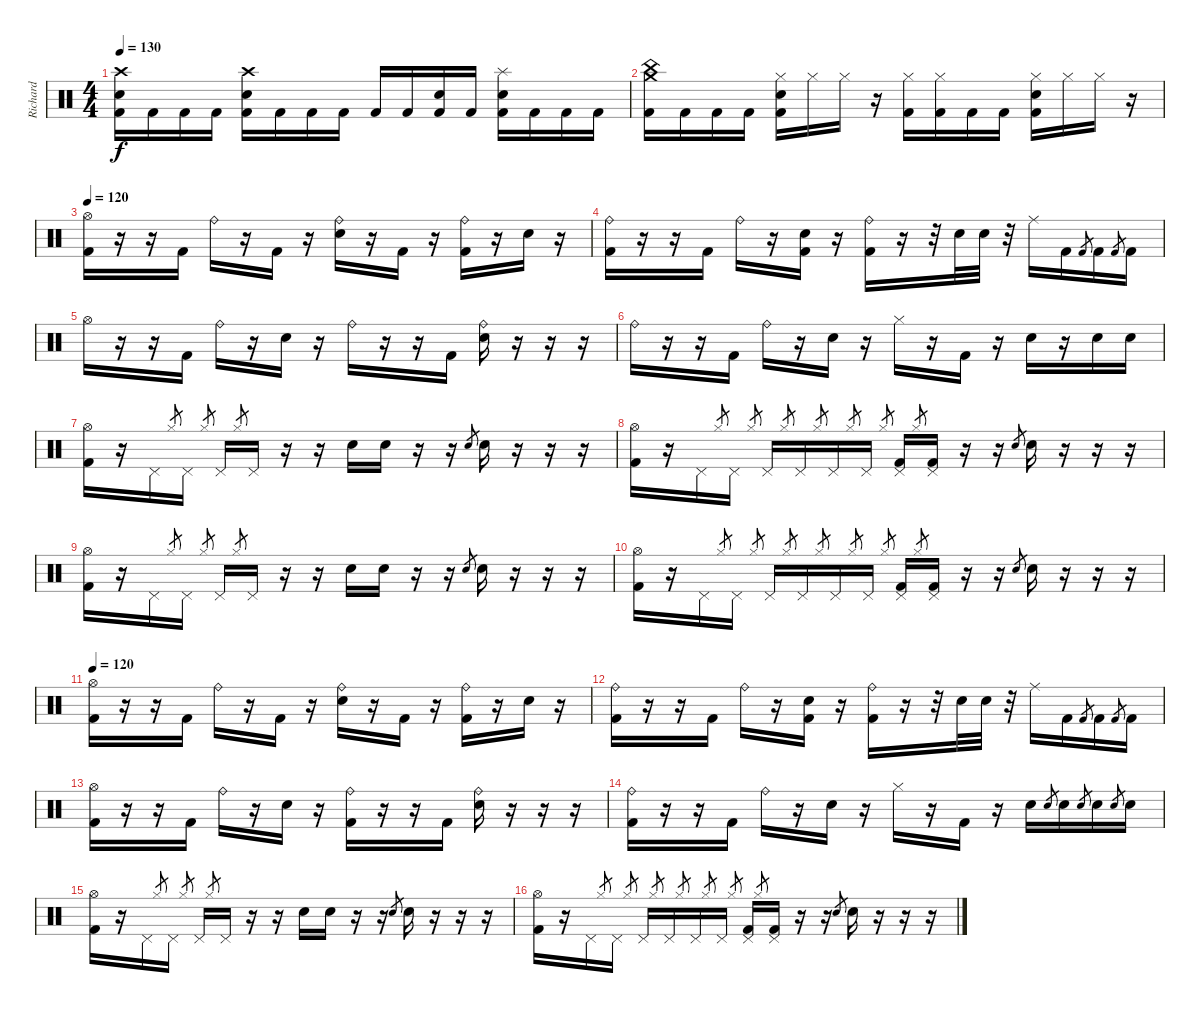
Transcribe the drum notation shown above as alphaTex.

\track ("Richard " "Richard ") {instrument percussion}
\staff {score}
\articulation defaults
\ts (4 4)
\tempo 130
\clef neutral
\ks c
("Crash high (hit)" "Snare (hit) 2" "Kick (hit) 2").16{dy f} "Kick (hit) 2".16 "Kick (hit) 2".16 "Kick (hit) 2".16 ("Crash high (hit)" "Snare (hit) 2" "Kick (hit) 2").16 "Kick (hit) 2".16 "Kick (hit) 2".16 "Kick (hit) 2".16 "Kick (hit) 2".16 "Kick (hit) 2".16 ("Snare (hit) 2" "Kick (hit) 2").16 "Kick (hit) 2".16 ("Splash (hit)" "Snare (hit) 2" "Kick (hit) 2").16 "Kick (hit) 2".16 "Kick (hit) 2".16 "Kick (hit) 2".16 |
("Crash medium (hit)" "China (hit)" "Kick (hit) 2").16 "Kick (hit) 2".16 "Kick (hit) 2".16 "Kick (hit) 2".16 ("Hi-Hat (closed)" "Snare (hit) 2" "Kick (hit) 2").16 "Hi-Hat (closed)".16 "Hi-Hat (closed)".16 r.16 ("Hi-Hat (closed)" "Kick (hit) 2").16 ("Hi-Hat (closed)" "Kick (hit) 2").16 "Kick (hit) 2".16 "Kick (hit) 2".16 ("Hi-Hat (closed)" "Snare (hit) 2" "Kick (hit) 2").16 "Hi-Hat (closed)".16 "Hi-Hat (closed)".16 r.16 |
\tempo 120
("Hi-Hat (open)" "Kick (hit) 2").16 r.16 r.16 "Kick (hit) 2".16 "Ride (bell)".16 r.16 "Kick (hit) 2".16 r.16 ("Ride (bell)" "Snare (hit) 2").16 r.16 "Kick (hit) 2".16 r.16 ("Ride (bell)" "Kick (hit) 2").16 r.16 "Snare (hit) 2".16 r.16 |
("Ride (bell)" "Kick (hit) 2").16 r.16 r.16 "Kick (hit) 2".16 "Ride (bell)".16 r.16 ("Snare (hit) 2" "Kick (hit) 2").16 r.16 ("Ride (bell)" "Kick (hit) 2").16 r.16 r.32 "Snare (hit) 2".32 "Snare (hit) 2".32 r.32 "Ride (middle)".16 "Kick (hit) 2".16 "Kick (hit) 2".8{gr} "Kick (hit) 2".16 "Kick (hit) 2".8{gr} "Kick (hit) 2".16 |
"Hi-Hat (open)".16 r.16 r.16 "Kick (hit) 2".16 "Ride (bell)".16 r.16 "Snare (hit) 2".16 r.16 "Ride (bell)".16 r.16 r.16 "Kick (hit) 2".16 ("Ride (bell)" "Snare (hit) 2").16 r.16 r.16 r.16 |
"Ride (bell)".16 r.16 r.16 "Kick (hit) 2".16 "Ride (bell)".16 r.16 "Snare (hit) 2".16 r.16 "Hi-Hat (closed)".16 r.16 "Kick (hit) 2".16 r.16 "Snare (hit) 2".16 r.16 "Snare (hit) 2".16 "Snare (hit) 2".16 |
("Hi-Hat (open)" "Kick (hit) 2").16 r.16 "Pedal Hi-Hat (hit)".16 "Hi-Hat (closed)".8{gr} "Pedal Hi-Hat (hit)".16 "Hi-Hat (closed)".8{gr} "Pedal Hi-Hat (hit)".16 "Hi-Hat (closed)".8{gr} "Pedal Hi-Hat (hit)".16 r.16 r.16 "Snare (hit) 2".16 "Snare (hit) 2".16 r.16 r.16 "Snare (hit) 2".8{gr} "Snare (hit) 2".16 r.16 r.16 r.16 |
("Hi-Hat (open)" "Kick (hit) 2").16 r.16 "Pedal Hi-Hat (hit)".16 "Hi-Hat (closed)".8{gr} "Pedal Hi-Hat (hit)".16 "Hi-Hat (closed)".8{gr} "Pedal Hi-Hat (hit)".16 "Hi-Hat (closed)".8{gr} "Pedal Hi-Hat (hit)".16 "Hi-Hat (closed)".8{gr} "Pedal Hi-Hat (hit)".16 "Hi-Hat (closed)".8{gr} "Pedal Hi-Hat (hit)".16 "Hi-Hat (closed)".8{gr} ("Pedal Hi-Hat (hit)" "Kick (hit) 2").16 "Hi-Hat (closed)".8{gr} ("Pedal Hi-Hat (hit)" "Kick (hit) 2").16 r.16 r.16 "Snare (hit) 2".8{gr} "Snare (hit) 2".16 r.16 r.16 r.16 |
("Hi-Hat (open)" "Kick (hit) 2").16 r.16 "Pedal Hi-Hat (hit)".16 "Hi-Hat (closed)".8{gr} "Pedal Hi-Hat (hit)".16 "Hi-Hat (closed)".8{gr} "Pedal Hi-Hat (hit)".16 "Hi-Hat (closed)".8{gr} "Pedal Hi-Hat (hit)".16 r.16 r.16 "Snare (hit) 2".16 "Snare (hit) 2".16 r.16 r.16 "Snare (hit) 2".8{gr} "Snare (hit) 2".16 r.16 r.16 r.16 |
("Hi-Hat (open)" "Kick (hit) 2").16 r.16 "Pedal Hi-Hat (hit)".16 "Hi-Hat (closed)".8{gr} "Pedal Hi-Hat (hit)".16 "Hi-Hat (closed)".8{gr} "Pedal Hi-Hat (hit)".16 "Hi-Hat (closed)".8{gr} "Pedal Hi-Hat (hit)".16 "Hi-Hat (closed)".8{gr} "Pedal Hi-Hat (hit)".16 "Hi-Hat (closed)".8{gr} "Pedal Hi-Hat (hit)".16 "Hi-Hat (closed)".8{gr} ("Pedal Hi-Hat (hit)" "Kick (hit) 2").16 "Hi-Hat (closed)".8{gr} ("Pedal Hi-Hat (hit)" "Kick (hit) 2").16 r.16 r.16 "Snare (hit) 2".8{gr} "Snare (hit) 2".16 r.16 r.16 r.16 |
\tempo 120
("Hi-Hat (open)" "Kick (hit) 2").16 r.16 r.16 "Kick (hit) 2".16 "Ride (bell)".16 r.16 "Kick (hit) 2".16 r.16 ("Ride (bell)" "Snare (hit) 2").16 r.16 "Kick (hit) 2".16 r.16 ("Ride (bell)" "Kick (hit) 2").16 r.16 "Snare (hit) 2".16 r.16 |
("Ride (bell)" "Kick (hit) 2").16 r.16 r.16 "Kick (hit) 2".16 "Ride (bell)".16 r.16 ("Snare (hit) 2" "Kick (hit) 2").16 r.16 ("Ride (bell)" "Kick (hit) 2").16 r.16 r.32 "Snare (hit) 2".32 "Snare (hit) 2".32 r.32 "Ride (middle)".16 "Kick (hit) 2".16 "Kick (hit) 2".8{gr} "Kick (hit) 2".16 "Kick (hit) 2".8{gr} "Kick (hit) 2".16 |
("Hi-Hat (open)" "Kick (hit) 2").16 r.16 r.16 "Kick (hit) 2".16 "Ride (bell)".16 r.16 "Snare (hit) 2".16 r.16 ("Ride (bell)" "Kick (hit) 2").16 r.16 r.16 "Kick (hit) 2".16 ("Ride (bell)" "Snare (hit) 2").16 r.16 r.16 r.16 |
("Ride (bell)" "Kick (hit) 2").16 r.16 r.16 "Kick (hit) 2".16 "Ride (bell)".16 r.16 "Snare (hit) 2".16 r.16 "Hi-Hat (closed)".16 r.16 "Kick (hit) 2".16 r.16 "Snare (hit) 2".16 "Snare (hit) 2".8{gr} "Snare (hit) 2".16 "Snare (hit) 2".8{gr} "Snare (hit) 2".16 "Snare (hit) 2".8{gr} "Snare (hit) 2".16 |
("Hi-Hat (open)" "Kick (hit) 2").16 r.16 "Pedal Hi-Hat (hit)".16 "Hi-Hat (closed)".8{gr} "Pedal Hi-Hat (hit)".16 "Hi-Hat (closed)".8{gr} "Pedal Hi-Hat (hit)".16 "Hi-Hat (closed)".8{gr} "Pedal Hi-Hat (hit)".16 r.16 r.16 "Snare (hit) 2".16 "Snare (hit) 2".16 r.16 r.16 "Snare (hit) 2".8{gr} "Snare (hit) 2".16 r.16 r.16 r.16 |
("Hi-Hat (open)" "Kick (hit) 2").16 r.16 "Pedal Hi-Hat (hit)".16 "Hi-Hat (closed)".8{gr} "Pedal Hi-Hat (hit)".16 "Hi-Hat (closed)".8{gr} "Pedal Hi-Hat (hit)".16 "Hi-Hat (closed)".8{gr} "Pedal Hi-Hat (hit)".16 "Hi-Hat (closed)".8{gr} "Pedal Hi-Hat (hit)".16 "Hi-Hat (closed)".8{gr} "Pedal Hi-Hat (hit)".16 "Hi-Hat (closed)".8{gr} ("Pedal Hi-Hat (hit)" "Kick (hit) 2").16 "Hi-Hat (closed)".8{gr} ("Pedal Hi-Hat (hit)" "Kick (hit) 2").16 r.16 r.16 "Snare (hit) 2".8{gr} "Snare (hit) 2".16 r.16 r.16 r.16
